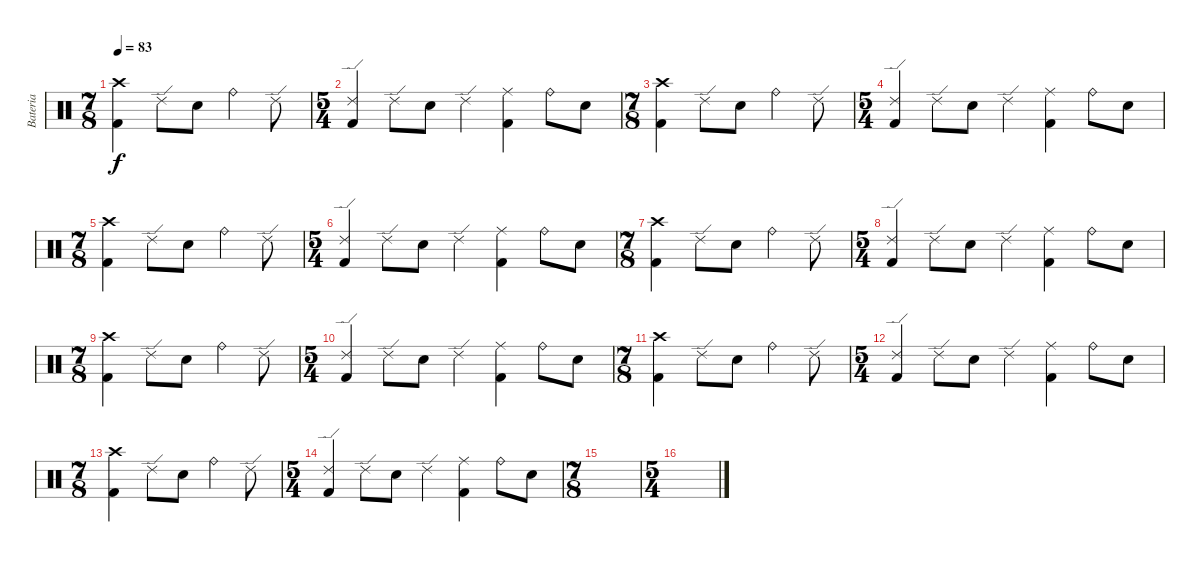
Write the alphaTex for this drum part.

\track ("Bateria" "Bateria") {instrument percussion}
\staff {score}
\articulation defaults
\ts (7 8)
\tempo 83
\clef neutral
\ks c
("Crash high (hit)" "Kick (hit) 2").4{dy f} "Ride (edge) 2".8 "Snare (hit) 2".8 "Ride (bell)".4 "Ride (edge) 2".8 |
\ts (5 4)
("Ride (edge) 2" "Kick (hit) 2").4 "Ride (edge) 2".8 "Snare (hit) 2".8 "Ride (edge) 2".4 ("Ride (middle)" "Kick (hit) 2").4 "Ride (bell)".8 "Snare (hit) 2".8 |
\ts (7 8)
("Crash high (hit)" "Kick (hit) 2").4 "Ride (edge) 2".8 "Snare (hit) 2".8 "Ride (bell)".4 "Ride (edge) 2".8 |
\ts (5 4)
("Ride (edge) 2" "Kick (hit) 2").4 "Ride (edge) 2".8 "Snare (hit) 2".8 "Ride (edge) 2".4 ("Ride (middle)" "Kick (hit) 2").4 "Ride (bell)".8 "Snare (hit) 2".8 |
\ts (7 8)
("Crash high (hit)" "Kick (hit) 2").4 "Ride (edge) 2".8 "Snare (hit) 2".8 "Ride (bell)".4 "Ride (edge) 2".8 |
\ts (5 4)
("Ride (edge) 2" "Kick (hit) 2").4 "Ride (edge) 2".8 "Snare (hit) 2".8 "Ride (edge) 2".4 ("Ride (middle)" "Kick (hit) 2").4 "Ride (bell)".8 "Snare (hit) 2".8 |
\ts (7 8)
("Crash high (hit)" "Kick (hit) 2").4 "Ride (edge) 2".8 "Snare (hit) 2".8 "Ride (bell)".4 "Ride (edge) 2".8 |
\ts (5 4)
("Ride (edge) 2" "Kick (hit) 2").4 "Ride (edge) 2".8 "Snare (hit) 2".8 "Ride (edge) 2".4 ("Ride (middle)" "Kick (hit) 2").4 "Ride (bell)".8 "Snare (hit) 2".8 |
\ts (7 8)
("Crash high (hit)" "Kick (hit) 2").4 "Ride (edge) 2".8 "Snare (hit) 2".8 "Ride (bell)".4 "Ride (edge) 2".8 |
\ts (5 4)
("Ride (edge) 2" "Kick (hit) 2").4 "Ride (edge) 2".8 "Snare (hit) 2".8 "Ride (edge) 2".4 ("Ride (middle)" "Kick (hit) 2").4 "Ride (bell)".8 "Snare (hit) 2".8 |
\ts (7 8)
("Crash high (hit)" "Kick (hit) 2").4 "Ride (edge) 2".8 "Snare (hit) 2".8 "Ride (bell)".4 "Ride (edge) 2".8 |
\ts (5 4)
("Ride (edge) 2" "Kick (hit) 2").4 "Ride (edge) 2".8 "Snare (hit) 2".8 "Ride (edge) 2".4 ("Ride (middle)" "Kick (hit) 2").4 "Ride (bell)".8 "Snare (hit) 2".8 |
\ts (7 8)
("Crash high (hit)" "Kick (hit) 2").4 "Ride (edge) 2".8 "Snare (hit) 2".8 "Ride (bell)".4 "Ride (edge) 2".8 |
\ts (5 4)
("Ride (edge) 2" "Kick (hit) 2").4 "Ride (edge) 2".8 "Snare (hit) 2".8 "Ride (edge) 2".4 ("Ride (middle)" "Kick (hit) 2").4 "Ride (bell)".8 "Snare (hit) 2".8 |
\ts (7 8)
|
\ts (5 4)
